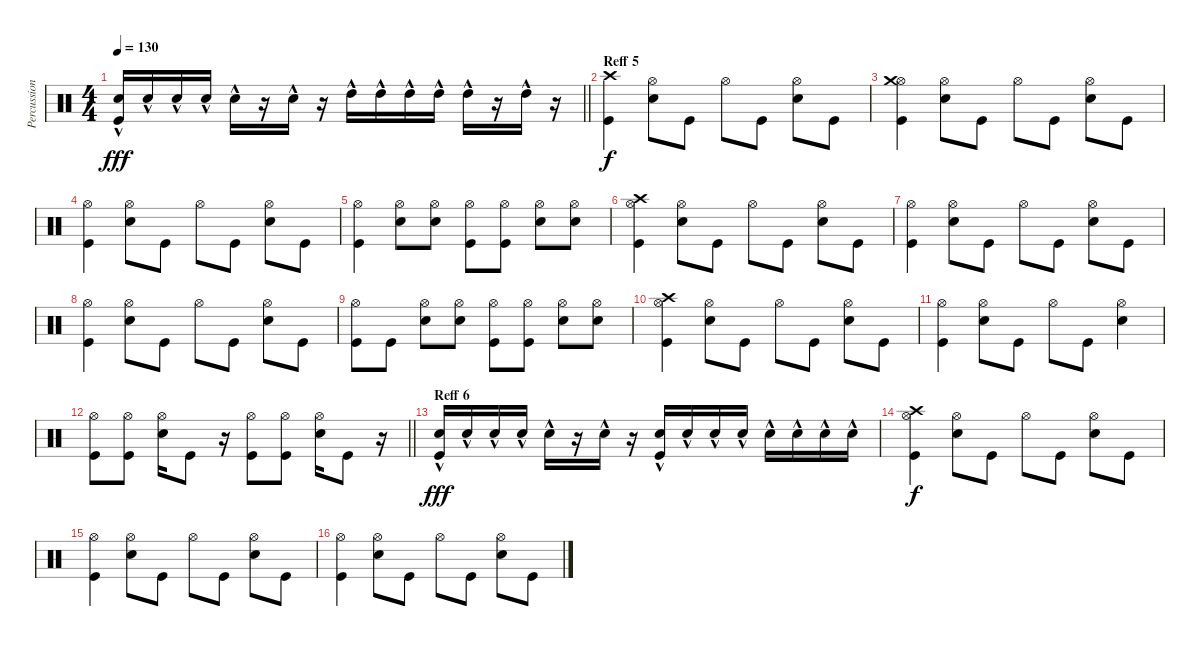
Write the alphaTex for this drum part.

\track ("Percussion 1" "Percussion") {instrument percussion}
\staff {score}
\articulation defaults
\ts (4 4)
\tempo 130
\clef neutral
\barLineRight lightlight
\ks c
("Electric Snare (hit)"{hac} "Kick (hit)"{hac}).16{dy fff} "Electric Snare (hit)"{hac}.16 "Electric Snare (hit)"{hac}.16 "Electric Snare (hit)"{hac}.16 "Electric Snare (hit)"{hac}.16 r.16 "Electric Snare (hit)"{hac}.16 r.16 "High Tom (hit)"{hac}.16 "High Tom (hit)"{hac}.16 "High Tom (hit)"{hac}.16 "High Tom (hit)"{hac}.16 "High Tom (hit)"{hac}.16 r.16 "High Tom (hit)"{hac}.16 r.16 |
\section ("" "Reff 5")
("Crash high (hit)" "Kick (hit)").4{dy f} ("Hi-Hat (open)" "Electric Snare (hit)").8 "Kick (hit)".8 "Hi-Hat (open)".8 "Kick (hit)".8 ("Hi-Hat (open)" "Electric Snare (hit)").8 "Kick (hit)".8 |
("Hi-Hat (open)" "Crash medium (hit)" "Kick (hit)").4 ("Hi-Hat (open)" "Electric Snare (hit)").8 "Kick (hit)".8 "Hi-Hat (open)".8 "Kick (hit)".8 ("Hi-Hat (open)" "Electric Snare (hit)").8 "Kick (hit)".8 |
("Hi-Hat (open)" "Kick (hit)").4 ("Hi-Hat (open)" "Electric Snare (hit)").8 "Kick (hit)".8 "Hi-Hat (open)".8 "Kick (hit)".8 ("Hi-Hat (open)" "Electric Snare (hit)").8 "Kick (hit)".8 |
("Hi-Hat (open)" "Kick (hit)").4 ("Hi-Hat (open)" "Electric Snare (hit)").8 ("Hi-Hat (open)" "Electric Snare (hit)").8 ("Hi-Hat (open)" "Kick (hit)").8 ("Hi-Hat (open)" "Kick (hit)").8 ("Hi-Hat (open)" "Electric Snare (hit)").8 ("Hi-Hat (open)" "Electric Snare (hit)").8 |
("Hi-Hat (open)" "Crash high (hit)" "Kick (hit)").4 ("Hi-Hat (open)" "Electric Snare (hit)").8 "Kick (hit)".8 "Hi-Hat (open)".8 "Kick (hit)".8 ("Hi-Hat (open)" "Electric Snare (hit)").8 "Kick (hit)".8 |
("Hi-Hat (open)" "Kick (hit)").4 ("Hi-Hat (open)" "Electric Snare (hit)").8 "Kick (hit)".8 "Hi-Hat (open)".8 "Kick (hit)".8 ("Hi-Hat (open)" "Electric Snare (hit)").8 "Kick (hit)".8 |
("Hi-Hat (open)" "Kick (hit)").4 ("Hi-Hat (open)" "Electric Snare (hit)").8 "Kick (hit)".8 "Hi-Hat (open)".8 "Kick (hit)".8 ("Hi-Hat (open)" "Electric Snare (hit)").8 "Kick (hit)".8 |
("Hi-Hat (open)" "Kick (hit)").8 "Kick (hit)".8 ("Hi-Hat (open)" "Electric Snare (hit)").8 ("Hi-Hat (open)" "Electric Snare (hit)").8 ("Hi-Hat (open)" "Kick (hit)").8 ("Hi-Hat (open)" "Kick (hit)").8 ("Hi-Hat (open)" "Electric Snare (hit)").8 ("Hi-Hat (open)" "Electric Snare (hit)").8 |
("Hi-Hat (open)" "Crash high (hit)" "Kick (hit)").4 ("Hi-Hat (open)" "Electric Snare (hit)").8 "Kick (hit)".8 "Hi-Hat (open)".8 "Kick (hit)".8 ("Hi-Hat (open)" "Electric Snare (hit)").8 "Kick (hit)".8 |
("Hi-Hat (open)" "Kick (hit)").4 ("Hi-Hat (open)" "Electric Snare (hit)").8 "Kick (hit)".8 "Hi-Hat (open)".8 "Kick (hit)".8 ("Hi-Hat (open)" "Electric Snare (hit)").4 |
\barLineRight lightlight
("Hi-Hat (open)" "Kick (hit)").8 ("Hi-Hat (open)" "Kick (hit)").8 ("Hi-Hat (open)" "Electric Snare (hit)").16 "Kick (hit)".8 r.16 ("Hi-Hat (open)" "Kick (hit)").8 ("Hi-Hat (open)" "Kick (hit)").8 ("Hi-Hat (open)" "Electric Snare (hit)").16 "Kick (hit)".8 r.16 |
\section ("" "Reff 6")
("Electric Snare (hit)"{hac} "Kick (hit)"{hac}).16{dy fff} "Electric Snare (hit)"{hac}.16 "Electric Snare (hit)"{hac}.16 "Electric Snare (hit)"{hac}.16 "Electric Snare (hit)"{hac}.16 r.16 "Electric Snare (hit)"{hac}.16 r.16 ("Electric Snare (hit)"{hac} "Kick (hit)"{hac}).16 "Electric Snare (hit)"{hac}.16 "Electric Snare (hit)"{hac}.16 "Electric Snare (hit)"{hac}.16 "Electric Snare (hit)"{hac}.16 "Electric Snare (hit)"{hac}.16 "Electric Snare (hit)"{hac}.16 "Electric Snare (hit)"{hac}.16 |
("Hi-Hat (open)" "Crash high (hit)" "Kick (hit)").4{dy f} ("Hi-Hat (open)" "Electric Snare (hit)").8 "Kick (hit)".8 "Hi-Hat (open)".8 "Kick (hit)".8 ("Hi-Hat (open)" "Electric Snare (hit)").8 "Kick (hit)".8 |
("Hi-Hat (open)" "Kick (hit)").4 ("Hi-Hat (open)" "Electric Snare (hit)").8 "Kick (hit)".8 "Hi-Hat (open)".8 "Kick (hit)".8 ("Hi-Hat (open)" "Electric Snare (hit)").8 "Kick (hit)".8 |
("Hi-Hat (open)" "Kick (hit)").4 ("Hi-Hat (open)" "Electric Snare (hit)").8 "Kick (hit)".8 "Hi-Hat (open)".8 "Kick (hit)".8 ("Hi-Hat (open)" "Electric Snare (hit)").8 "Kick (hit)".8
